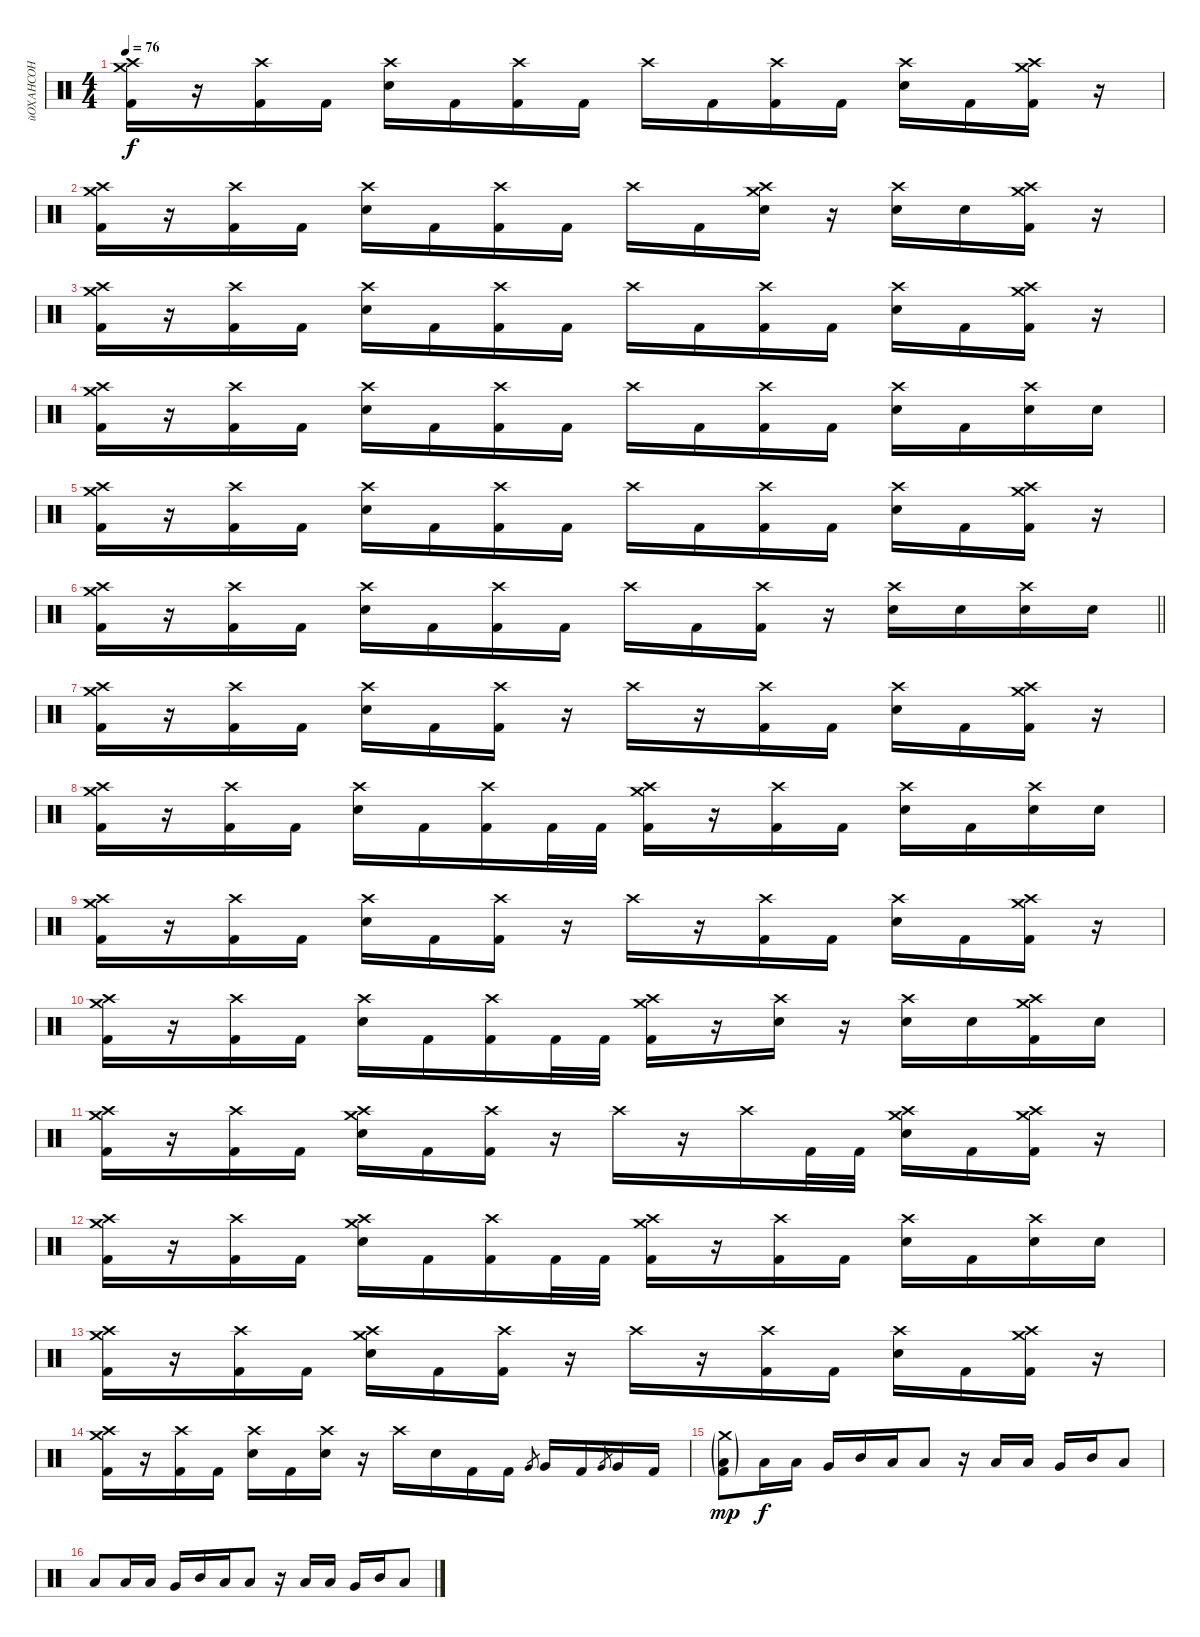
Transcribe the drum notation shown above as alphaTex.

\track ("йОХАНСОН" "йОХАНСОН") {instrument percussion}
\staff {score}
\articulation defaults
\ts (4 4)
\tempo 76
\clef neutral
\ks c
("Crash high (hit)" "Crash medium (hit)" "Kick (hit) 2").16{dy f} r.16 ("Crash high (hit)" "Kick (hit) 2").16 "Kick (hit) 2".16 ("Crash high (hit)" "Snare (hit) 2").16 "Kick (hit) 2".16 ("Crash high (hit)" "Kick (hit) 2").16 "Kick (hit) 2".16 "Crash high (hit)".16 "Kick (hit) 2".16 ("Crash high (hit)" "Kick (hit) 2").16 "Kick (hit) 2".16 ("Crash high (hit)" "Snare (hit) 2").16 "Kick (hit) 2".16 ("Crash high (hit)" "Crash medium (hit)" "Kick (hit) 2").16 r.16 |
("Crash high (hit)" "Crash medium (hit)" "Kick (hit) 2").16 r.16 ("Crash high (hit)" "Kick (hit) 2").16 "Kick (hit) 2".16 ("Crash high (hit)" "Snare (hit) 2").16 "Kick (hit) 2".16 ("Crash high (hit)" "Kick (hit) 2").16 "Kick (hit) 2".16 "Crash high (hit)".16 "Kick (hit) 2".16 ("Crash high (hit)" "Crash medium (hit)" "Snare (hit) 2").16 r.16 ("Crash high (hit)" "Snare (hit) 2").16 "Snare (hit) 2".16 ("Crash high (hit)" "Crash medium (hit)" "Kick (hit) 2").16 r.16 |
("Crash high (hit)" "Crash medium (hit)" "Kick (hit) 2").16 r.16 ("Crash high (hit)" "Kick (hit) 2").16 "Kick (hit) 2".16 ("Crash high (hit)" "Snare (hit) 2").16 "Kick (hit) 2".16 ("Crash high (hit)" "Kick (hit) 2").16 "Kick (hit) 2".16 "Crash high (hit)".16 "Kick (hit) 2".16 ("Crash high (hit)" "Kick (hit) 2").16 "Kick (hit) 2".16 ("Crash high (hit)" "Snare (hit) 2").16 "Kick (hit) 2".16 ("Crash high (hit)" "Crash medium (hit)" "Kick (hit) 2").16 r.16 |
("Crash high (hit)" "Crash medium (hit)" "Kick (hit) 2").16 r.16 ("Crash high (hit)" "Kick (hit) 2").16 "Kick (hit) 2".16 ("Crash high (hit)" "Snare (hit) 2").16 "Kick (hit) 2".16 ("Crash high (hit)" "Kick (hit) 2").16 "Kick (hit) 2".16 "Crash high (hit)".16 "Kick (hit) 2".16 ("Crash high (hit)" "Kick (hit) 2").16 "Kick (hit) 2".16 ("Crash high (hit)" "Snare (hit) 2").16 "Kick (hit) 2".16 ("Crash high (hit)" "Snare (hit) 2").16 "Snare (hit) 2".16 |
("Crash high (hit)" "Crash medium (hit)" "Kick (hit) 2").16 r.16 ("Crash high (hit)" "Kick (hit) 2").16 "Kick (hit) 2".16 ("Crash high (hit)" "Snare (hit) 2").16 "Kick (hit) 2".16 ("Crash high (hit)" "Kick (hit) 2").16 "Kick (hit) 2".16 "Crash high (hit)".16 "Kick (hit) 2".16 ("Crash high (hit)" "Kick (hit) 2").16 "Kick (hit) 2".16 ("Crash high (hit)" "Snare (hit) 2").16 "Kick (hit) 2".16 ("Crash high (hit)" "Crash medium (hit)" "Kick (hit) 2").16 r.16 |
\barLineRight lightlight
("Crash high (hit)" "Crash medium (hit)" "Kick (hit) 2").16 r.16 ("Crash high (hit)" "Kick (hit) 2").16 "Kick (hit) 2".16 ("Crash high (hit)" "Snare (hit) 2").16 "Kick (hit) 2".16 ("Crash high (hit)" "Kick (hit) 2").16 "Kick (hit) 2".16 "Crash high (hit)".16 "Kick (hit) 2".16 ("Crash high (hit)" "Kick (hit) 2").16 r.16 ("Crash high (hit)" "Snare (hit) 2").16 "Snare (hit) 2".16 ("Crash high (hit)" "Snare (hit) 2").16 "Snare (hit) 2".16 |
("Crash high (hit)" "Crash medium (hit)" "Kick (hit) 2").16 r.16 ("Crash high (hit)" "Kick (hit) 2").16 "Kick (hit) 2".16 ("Crash high (hit)" "Snare (hit) 2").16 "Kick (hit) 2".16 ("Crash high (hit)" "Kick (hit) 2").16 r.16 "Crash high (hit)".16 r.16 ("Crash high (hit)" "Kick (hit) 2").16 "Kick (hit) 2".16 ("Crash high (hit)" "Snare (hit) 2").16 "Kick (hit) 2".16 ("Crash high (hit)" "Crash medium (hit)" "Kick (hit) 2").16 r.16 |
("Crash high (hit)" "Crash medium (hit)" "Kick (hit) 2").16 r.16 ("Crash high (hit)" "Kick (hit) 2").16 "Kick (hit) 2".16 ("Crash high (hit)" "Snare (hit) 2").16 "Kick (hit) 2".16 ("Crash high (hit)" "Kick (hit) 2").16 "Kick (hit) 2".32 "Kick (hit) 2".32 ("Crash high (hit)" "Crash medium (hit)" "Kick (hit) 2").16 r.16 ("Crash high (hit)" "Kick (hit) 2").16 "Kick (hit) 2".16 ("Crash high (hit)" "Snare (hit) 2").16 "Kick (hit) 2".16 ("Crash high (hit)" "Snare (hit) 2").16 "Snare (hit) 2".16 |
("Crash high (hit)" "Crash medium (hit)" "Kick (hit) 2").16 r.16 ("Crash high (hit)" "Kick (hit) 2").16 "Kick (hit) 2".16 ("Crash high (hit)" "Snare (hit) 2").16 "Kick (hit) 2".16 ("Crash high (hit)" "Kick (hit) 2").16 r.16 "Crash high (hit)".16 r.16 ("Crash high (hit)" "Kick (hit) 2").16 "Kick (hit) 2".16 ("Crash high (hit)" "Snare (hit) 2").16 "Kick (hit) 2".16 ("Crash high (hit)" "Crash medium (hit)" "Kick (hit) 2").16 r.16 |
("Crash high (hit)" "Crash medium (hit)" "Kick (hit) 2").16 r.16 ("Crash high (hit)" "Kick (hit) 2").16 "Kick (hit) 2".16 ("Crash high (hit)" "Snare (hit) 2").16 "Kick (hit) 2".16 ("Crash high (hit)" "Kick (hit) 2").16 "Kick (hit) 2".32 "Kick (hit) 2".32 ("Crash high (hit)" "Crash medium (hit)" "Kick (hit) 2").16 r.16 ("Crash high (hit)" "Snare (hit) 2").16 r.16 ("Crash high (hit)" "Snare (hit) 2").16 "Snare (hit) 2".16 ("Crash high (hit)" "Crash medium (hit)" "Kick (hit) 2").16 "Snare (hit) 2".16 |
("Crash high (hit)" "Crash medium (hit)" "Kick (hit) 2").16 r.16 ("Crash high (hit)" "Kick (hit) 2").16 "Kick (hit) 2".16 ("Crash high (hit)" "Crash medium (hit)" "Snare (hit) 2").16 "Kick (hit) 2".16 ("Crash high (hit)" "Kick (hit) 2").16 r.16 "Crash high (hit)".16 r.16 "Crash high (hit)".16 "Kick (hit) 2".32 "Kick (hit) 2".32 ("Crash high (hit)" "Crash medium (hit)" "Snare (hit) 2").16 "Kick (hit) 2".16 ("Crash high (hit)" "Crash medium (hit)" "Kick (hit) 2").16 r.16 |
("Crash high (hit)" "Crash medium (hit)" "Kick (hit) 2").16 r.16 ("Crash high (hit)" "Kick (hit) 2").16 "Kick (hit) 2".16 ("Crash high (hit)" "Crash medium (hit)" "Snare (hit) 2").16 "Kick (hit) 2".16 ("Crash high (hit)" "Kick (hit) 2").16 "Kick (hit) 2".32 "Kick (hit) 2".32 ("Crash high (hit)" "Crash medium (hit)" "Kick (hit) 2").16 r.16 ("Crash high (hit)" "Kick (hit) 2").16 "Kick (hit) 2".16 ("Crash high (hit)" "Snare (hit) 2").16 "Kick (hit) 2".16 ("Crash high (hit)" "Snare (hit) 2").16 "Snare (hit) 2".16 |
("Crash high (hit)" "Crash medium (hit)" "Kick (hit) 2").16 r.16 ("Crash high (hit)" "Kick (hit) 2").16 "Kick (hit) 2".16 ("Crash high (hit)" "Crash medium (hit)" "Snare (hit) 2").16 "Kick (hit) 2".16 ("Crash high (hit)" "Kick (hit) 2").16 r.16 "Crash high (hit)".16 r.16 ("Crash high (hit)" "Kick (hit) 2").16 "Kick (hit) 2".16 ("Crash high (hit)" "Snare (hit) 2").16 "Kick (hit) 2".16 ("Crash high (hit)" "Crash medium (hit)" "Kick (hit) 2").16 r.16 |
("Crash high (hit)" "Crash medium (hit)" "Kick (hit) 2").16 r.16 ("Crash high (hit)" "Kick (hit) 2").16 "Kick (hit) 2".16 ("Crash high (hit)" "Snare (hit) 2").16 "Kick (hit) 2".16 ("Crash high (hit)" "Snare (hit) 2").16 r.16 "Crash high (hit)".16 "Snare (hit) 2".16 "Kick (hit) 2".16 "Kick (hit) 2".16 "Very Low Tom (hit)".8{gr} "Very Low Tom (hit)".16 "Kick (hit) 2".16 "Very Low Tom (hit)".8{gr} "Very Low Tom (hit)".16 "Kick (hit) 2".16 |
("Low Floor Tom (hit)"{g} "Crash medium (hit)"{g} "Kick (hit) 2"{g}).8{dy mp volume 9} "Low Floor Tom (hit)".16{dy f} "Low Floor Tom (hit)".16 "Very Low Tom (hit)".16 "Mid Tom (hit)".16 "Low Floor Tom (hit)".16 "Low Floor Tom (hit)".8 r.16 "Low Floor Tom (hit)".16 "Low Floor Tom (hit)".16 "Very Low Tom (hit)".16 "Mid Tom (hit)".16 "Low Floor Tom (hit)".8 |
"Low Floor Tom (hit)".8 "Low Floor Tom (hit)".16 "Low Floor Tom (hit)".16 "Very Low Tom (hit)".16 "Mid Tom (hit)".16 "Low Floor Tom (hit)".16 "Low Floor Tom (hit)".8 r.16 "Low Floor Tom (hit)".16 "Low Floor Tom (hit)".16 "Very Low Tom (hit)".16 "Mid Tom (hit)".16 "Low Floor Tom (hit)".8
